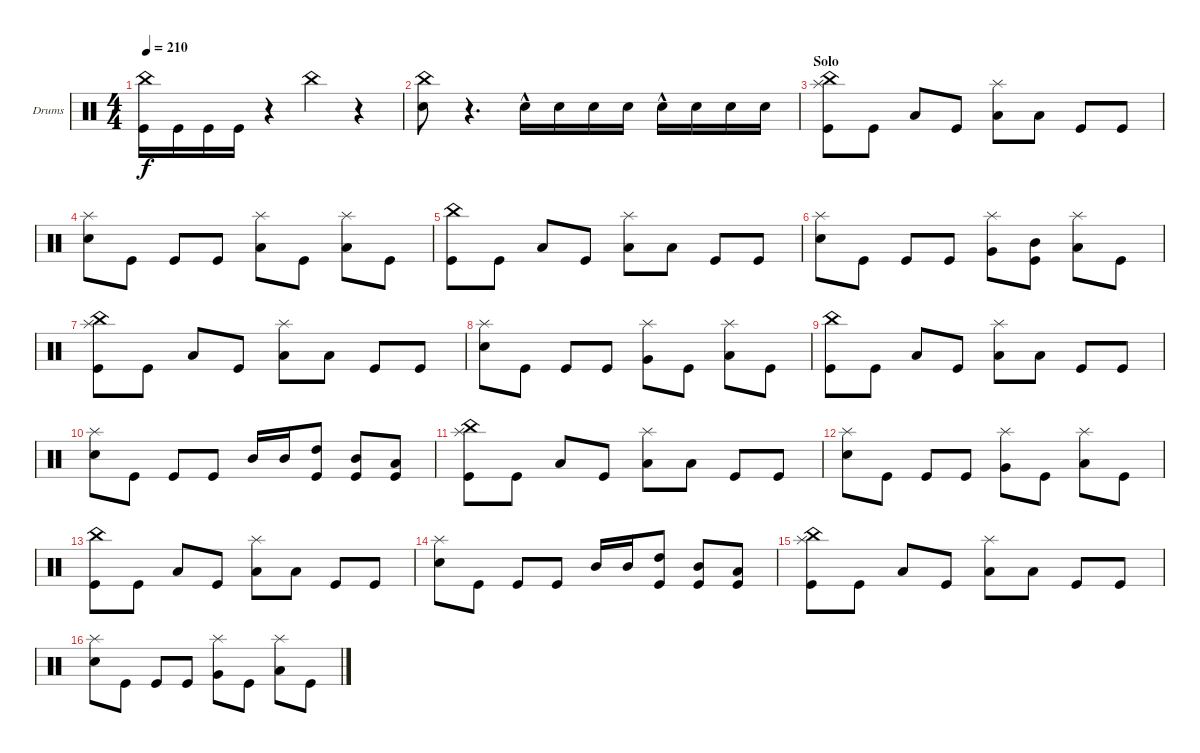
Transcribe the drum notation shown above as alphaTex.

\defaultSystemsLayout 4
\bracketExtendMode groupsimilarinstruments
\firstSystemTrackNameOrientation horizontal
\otherSystemsTrackNameOrientation horizontal
\track ("Drumkit" "Drums") {instrument percussion}
\staff {score}
\articulation defaults
\ts (4 4)
\tempo 210
\clef neutral
\ks c
("Kick (hit)" "China (hit)").16{dy f} "Kick (hit)".16 "Kick (hit)".16 "Kick (hit)".16 r.4 "China (hit)".4 r.4 |
("Snare (hit) 2" "China (hit)").8 r.4{d} "Snare (hit) 2"{hac}.16 "Snare (hit) 2".16 "Snare (hit) 2".16 "Snare (hit) 2".16 "Snare (hit) 2"{hac}.16 "Snare (hit) 2".16 "Snare (hit) 2".16 "Snare (hit) 2".16 |
\section ("" "Solo")
("Kick (hit)" "Splash (hit)" "China (hit)").8 "Kick (hit)".8 "Low Tom (hit)".8 "Kick (hit)".8 ("Splash (hit)" "Low Tom (hit)").8 "Low Tom (hit)".8 "Kick (hit)".8 "Kick (hit)".8 |
("Snare (hit) 2" "Splash (hit)").8 "Kick (hit)".8 "Kick (hit)".8 "Kick (hit)".8 ("Splash (hit)" "Low Tom (hit)").8 "Kick (hit)".8 ("Splash (hit)" "Low Tom (hit)").8 "Kick (hit)".8 |
("China (hit)" "Kick (hit)").8 "Kick (hit)".8 "Low Tom (hit)".8 "Kick (hit)".8 ("Splash (hit)" "Low Tom (hit)").8 "Low Tom (hit)".8 "Kick (hit)".8 "Kick (hit)".8 |
("Splash (hit)" "Snare (hit) 2").8 "Kick (hit)".8 "Kick (hit)".8 "Kick (hit)".8 ("Splash (hit)" "Very Low Tom (hit)").8 ("Kick (hit)" "Mid Tom (hit)").8 ("Splash (hit)" "Low Tom (hit)").8 "Kick (hit)".8 |
("Kick (hit)" "Splash (hit)" "China (hit)").8 "Kick (hit)".8 "Low Tom (hit)".8 "Kick (hit)".8 ("Splash (hit)" "Low Tom (hit)").8 "Low Tom (hit)".8 "Kick (hit)".8 "Kick (hit)".8 |
("Snare (hit) 2" "Splash (hit)").8 "Kick (hit)".8 "Kick (hit)".8 "Kick (hit)".8 ("Splash (hit)" "Very Low Tom (hit)").8 "Kick (hit)".8 ("Splash (hit)" "Low Tom (hit)").8 "Kick (hit)".8 |
("China (hit)" "Kick (hit)").8 "Kick (hit)".8 "Low Tom (hit)".8 "Kick (hit)".8 ("Splash (hit)" "Low Tom (hit)").8 "Low Tom (hit)".8 "Kick (hit)".8 "Kick (hit)".8 |
("Splash (hit)" "Snare (hit) 2").8 "Kick (hit)".8 "Kick (hit)".8 "Kick (hit)".8 "Mid Tom (hit)".16 "Mid Tom (hit)".16 ("Kick (hit)" "High Tom (hit)").8 ("Kick (hit)" "Mid Tom (hit)").8 ("Kick (hit)" "Low Tom (hit)").8 |
("Kick (hit)" "Splash (hit)" "China (hit)").8 "Kick (hit)".8 "Low Tom (hit)".8 "Kick (hit)".8 ("Splash (hit)" "Low Tom (hit)").8 "Low Tom (hit)".8 "Kick (hit)".8 "Kick (hit)".8 |
("Snare (hit) 2" "Splash (hit)").8 "Kick (hit)".8 "Kick (hit)".8 "Kick (hit)".8 ("Splash (hit)" "Very Low Tom (hit)").8 "Kick (hit)".8 ("Splash (hit)" "Low Tom (hit)").8 "Kick (hit)".8 |
("China (hit)" "Kick (hit)").8 "Kick (hit)".8 "Low Tom (hit)".8 "Kick (hit)".8 ("Splash (hit)" "Low Tom (hit)").8 "Low Tom (hit)".8 "Kick (hit)".8 "Kick (hit)".8 |
("Splash (hit)" "Snare (hit) 2").8 "Kick (hit)".8 "Kick (hit)".8 "Kick (hit)".8 "Mid Tom (hit)".16 "Mid Tom (hit)".16 ("Kick (hit)" "High Tom (hit)").8 ("Kick (hit)" "Mid Tom (hit)").8 ("Kick (hit)" "Low Tom (hit)").8 |
("Kick (hit)" "Splash (hit)" "China (hit)").8 "Kick (hit)".8 "Low Tom (hit)".8 "Kick (hit)".8 ("Splash (hit)" "Low Tom (hit)").8 "Low Tom (hit)".8 "Kick (hit)".8 "Kick (hit)".8 |
("Snare (hit) 2" "Splash (hit)").8 "Kick (hit)".8 "Kick (hit)".8 "Kick (hit)".8 ("Splash (hit)" "Very Low Tom (hit)").8 "Kick (hit)".8 ("Splash (hit)" "Low Tom (hit)").8 "Kick (hit)".8
